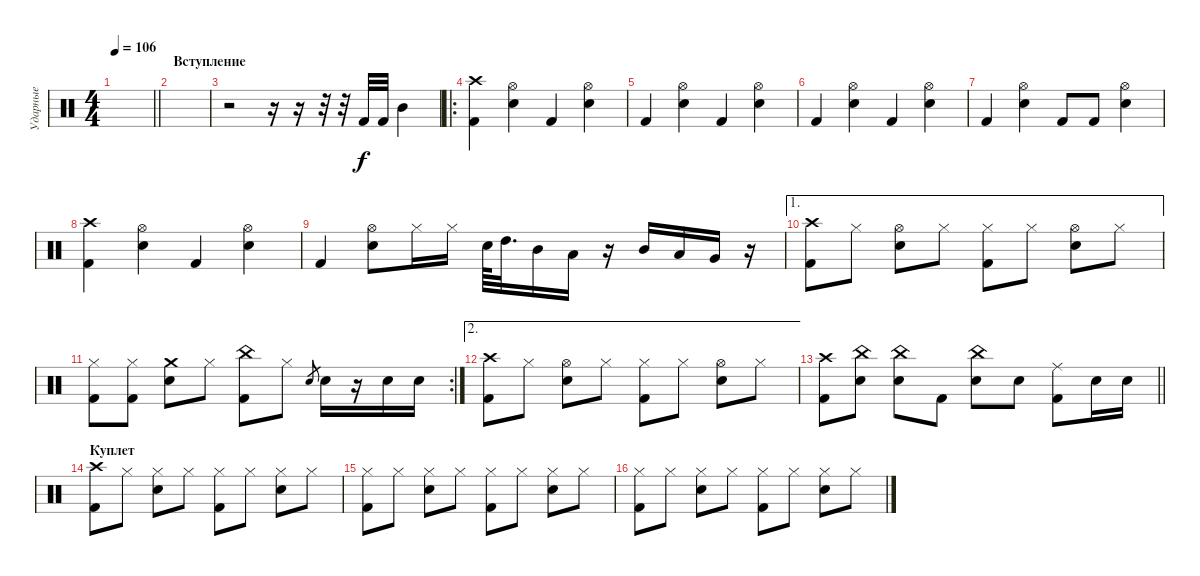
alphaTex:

\track ("Ударные" "Ударные") {instrument percussion}
\staff {score}
\articulation defaults
\ts (4 4)
\tempo 106
\clef neutral
\barLineRight lightlight
\ks c
|
\section ("" "Вступление")
|
r.2 r.16 r.16 r.32 r.32 "Kick (hit) 2".32 "Kick (hit) 2".32 "Mid Tom (hit)".4 |
\ro
("Crash high (hit)" "Kick (hit) 2").4 ("Electric Snare (hit)" "Hi-Hat (open)").4 "Kick (hit) 2".4 ("Electric Snare (hit)" "Hi-Hat (open)").4 |
"Kick (hit) 2".4 ("Electric Snare (hit)" "Hi-Hat (open)").4 "Kick (hit) 2".4 ("Electric Snare (hit)" "Hi-Hat (open)").4 |
"Kick (hit) 2".4 ("Electric Snare (hit)" "Hi-Hat (open)").4 "Kick (hit) 2".4 ("Electric Snare (hit)" "Hi-Hat (open)").4 |
"Kick (hit) 2".4 ("Electric Snare (hit)" "Hi-Hat (open)").4 "Kick (hit) 2".8 "Kick (hit) 2".8 ("Electric Snare (hit)" "Hi-Hat (open)").4 |
("Crash high (hit)" "Kick (hit) 2").4 ("Electric Snare (hit)" "Hi-Hat (open)").4 "Kick (hit) 2".4 ("Electric Snare (hit)" "Hi-Hat (open)").4 |
"Kick (hit) 2".4 ("Electric Snare (hit)" "Hi-Hat (open)").8 "Hi-Hat (closed)".16 "Hi-Hat (closed)".16 "Electric Snare (hit)".64 "High Tom (hit)".32{d} "Mid Tom (hit)".16 "Low Tom (hit)".16 r.16 "Mid Tom (hit)".16 "Low Tom (hit)".16 "Very Low Tom (hit)".16 r.16 |
\ae 1
("Crash high (hit)" "Kick (hit) 2").8 "Hi-Hat (closed)".8 ("Hi-Hat (open)" "Electric Snare (hit)").8 "Hi-Hat (closed)".8 ("Hi-Hat (closed)" "Kick (hit) 2").8 "Hi-Hat (closed)".8 ("Hi-Hat (open)" "Electric Snare (hit)").8 "Hi-Hat (closed)".8 |
\rc 2
("Hi-Hat (closed)" "Kick (hit) 2").8 ("Hi-Hat (closed)" "Kick (hit) 2").8 ("Crash medium (hit)" "Electric Snare (hit)").8 "Hi-Hat (closed)".8 ("China (hit)" "Kick (hit) 2").8 "Hi-Hat (closed)".8 "Electric Snare (hit)".8{gr} "Electric Snare (hit)".16 r.16 "Electric Snare (hit)".16 "Electric Snare (hit)".16 |
\ae 2
("Crash high (hit)" "Kick (hit) 2").8 "Hi-Hat (closed)".8 ("Hi-Hat (open)" "Electric Snare (hit)").8 "Hi-Hat (closed)".8 ("Hi-Hat (closed)" "Kick (hit) 2").8 "Hi-Hat (closed)".8 ("Hi-Hat (open)" "Electric Snare (hit)").8 "Hi-Hat (closed)".8 |
\barLineRight lightlight
("Kick (hit) 2" "Crash high (hit)").8 ("Electric Snare (hit)" "China (hit)").8 ("Electric Snare (hit)" "China (hit)").8 "Kick (hit) 2".8 ("Electric Snare (hit)" "China (hit)").8 "Electric Snare (hit)".8 ("Kick (hit) 2" "Ride (middle)").8 "Electric Snare (hit)".16 "Electric Snare (hit)".16 |
\section ("" "Куплет")
("Kick (hit) 2" "Crash high (hit)").8 "Hi-Hat (closed)".8 ("Electric Snare (hit)" "Hi-Hat (closed)").8 "Hi-Hat (closed)".8 ("Kick (hit) 2" "Hi-Hat (closed)").8 "Hi-Hat (closed)".8 ("Electric Snare (hit)" "Hi-Hat (closed)").8 "Hi-Hat (closed)".8 |
("Kick (hit) 2" "Hi-Hat (closed)").8 "Hi-Hat (closed)".8 ("Electric Snare (hit)" "Hi-Hat (closed)").8 "Hi-Hat (closed)".8 ("Kick (hit) 2" "Hi-Hat (closed)").8 "Hi-Hat (closed)".8 ("Electric Snare (hit)" "Hi-Hat (closed)").8 "Hi-Hat (closed)".8 |
("Kick (hit) 2" "Hi-Hat (closed)").8 "Hi-Hat (closed)".8 ("Electric Snare (hit)" "Hi-Hat (closed)").8 "Hi-Hat (closed)".8 ("Kick (hit) 2" "Hi-Hat (closed)").8 "Hi-Hat (closed)".8 ("Electric Snare (hit)" "Hi-Hat (closed)").8 "Hi-Hat (closed)".8
